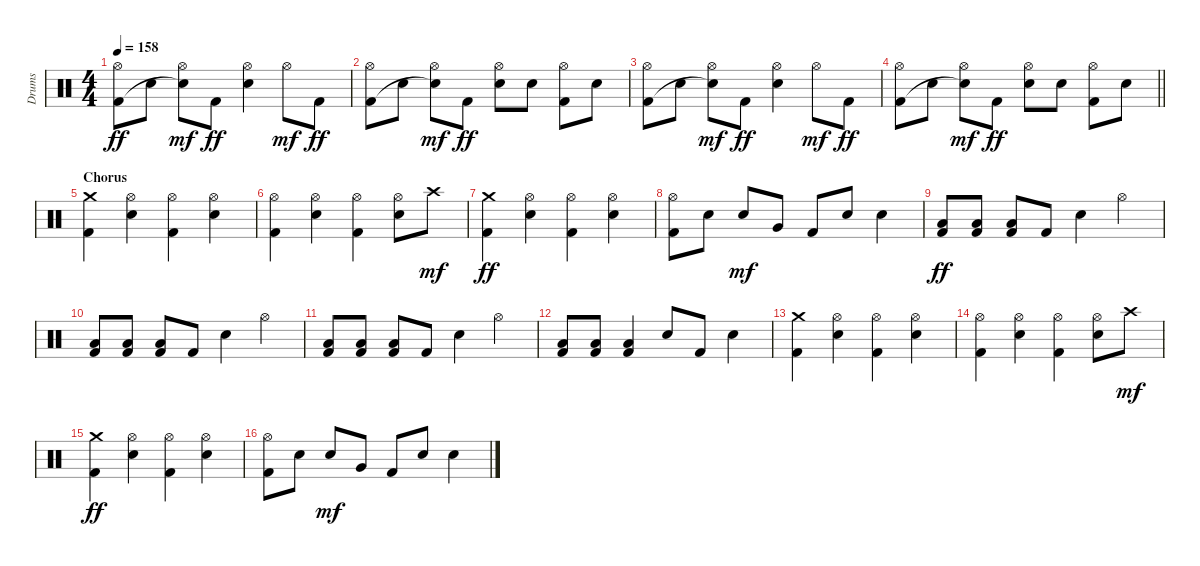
\track ("Drums" "Drums") {instrument percussion}
\staff {score}
\articulation defaults
\ts (4 4)
\tempo 158
\clef neutral
\ks c
("Hi-Hat (open)" "Kick (hit) 2").8{dy ff} "Electric Snare (hit)".8 ("Hi-Hat (open)" "Snare (hit)"{t}).8{dy mf} "Kick (hit) 2".8{dy ff} ("Hi-Hat (open)" "Electric Snare (hit)").4 "Hi-Hat (open)".8{dy mf} "Kick (hit) 2".8{dy ff} |
("Hi-Hat (open)" "Kick (hit) 2").8 "Electric Snare (hit)".8 ("Hi-Hat (open)" "Snare (hit)"{t}).8{dy mf} "Kick (hit) 2".8{dy ff} ("Hi-Hat (open)" "Electric Snare (hit)").8 "Electric Snare (hit)".8 ("Hi-Hat (open)" "Kick (hit) 2").8 "Electric Snare (hit)".8 |
("Hi-Hat (open)" "Kick (hit) 2").8 "Electric Snare (hit)".8 ("Hi-Hat (open)" "Snare (hit)"{t}).8{dy mf} "Kick (hit) 2".8{dy ff} ("Hi-Hat (open)" "Electric Snare (hit)").4 "Hi-Hat (open)".8{dy mf} "Kick (hit) 2".8{dy ff} |
\barLineRight lightlight
("Hi-Hat (open)" "Kick (hit) 2").8 "Electric Snare (hit)".8 ("Hi-Hat (open)" "Snare (hit)"{t}).8{dy mf} "Kick (hit) 2".8{dy ff} ("Hi-Hat (open)" "Electric Snare (hit)").8 "Electric Snare (hit)".8 ("Hi-Hat (open)" "Kick (hit) 2").8 "Electric Snare (hit)".8 |
\section ("" "Chorus")
("Crash medium (hit)" "Kick (hit) 2").4 ("Hi-Hat (open)" "Electric Snare (hit)").4 ("Hi-Hat (open)" "Kick (hit) 2").4 ("Hi-Hat (open)" "Electric Snare (hit)").4 |
("Hi-Hat (open)" "Kick (hit) 2").4 ("Hi-Hat (open)" "Electric Snare (hit)").4 ("Hi-Hat (open)" "Kick (hit) 2").4 ("Hi-Hat (open)" "Electric Snare (hit)").8 "Crash high (hit)".8{dy mf} |
("Crash medium (hit)" "Kick (hit) 2").4{dy ff} ("Hi-Hat (open)" "Electric Snare (hit)").4 ("Hi-Hat (open)" "Kick (hit) 2").4 ("Hi-Hat (open)" "Electric Snare (hit)").4 |
("Hi-Hat (open)" "Kick (hit) 2").8 "Electric Snare (hit)".8 "Electric Snare (hit)".8{dy mf} "Very Low Tom (hit)".8 "Kick (hit) 2".8 "Electric Snare (hit)".8 "Electric Snare (hit)".4 |
("Low Floor Tom (hit)" "Kick (hit) 2").8{dy ff} ("Low Floor Tom (hit)" "Kick (hit) 2").8 ("Low Floor Tom (hit)" "Kick (hit) 2").8 "Kick (hit) 2".8 "Electric Snare (hit)".4 "Hi-Hat (open)".4 |
("Low Floor Tom (hit)" "Kick (hit) 2").8 ("Low Floor Tom (hit)" "Kick (hit) 2").8 ("Low Floor Tom (hit)" "Kick (hit) 2").8 "Kick (hit) 2".8 "Electric Snare (hit)".4 "Hi-Hat (open)".4 |
("Low Floor Tom (hit)" "Kick (hit) 2").8 ("Low Floor Tom (hit)" "Kick (hit) 2").8 ("Low Floor Tom (hit)" "Kick (hit) 2").8 "Kick (hit) 2".8 "Electric Snare (hit)".4 "Hi-Hat (open)".4 |
("Low Floor Tom (hit)" "Kick (hit) 2").8 ("Low Floor Tom (hit)" "Kick (hit) 2").8 ("Low Floor Tom (hit)" "Kick (hit) 2").4 "Electric Snare (hit)".8 "Kick (hit) 2".8 "Electric Snare (hit)".4 |
("Crash medium (hit)" "Kick (hit) 2").4 ("Hi-Hat (open)" "Electric Snare (hit)").4 ("Hi-Hat (open)" "Kick (hit) 2").4 ("Hi-Hat (open)" "Electric Snare (hit)").4 |
("Hi-Hat (open)" "Kick (hit) 2").4 ("Hi-Hat (open)" "Electric Snare (hit)").4 ("Hi-Hat (open)" "Kick (hit) 2").4 ("Hi-Hat (open)" "Electric Snare (hit)").8 "Crash high (hit)".8{dy mf} |
("Crash medium (hit)" "Kick (hit) 2").4{dy ff} ("Hi-Hat (open)" "Electric Snare (hit)").4 ("Hi-Hat (open)" "Kick (hit) 2").4 ("Hi-Hat (open)" "Electric Snare (hit)").4 |
("Hi-Hat (open)" "Kick (hit) 2").8 "Electric Snare (hit)".8 "Electric Snare (hit)".8{dy mf} "Very Low Tom (hit)".8 "Kick (hit) 2".8 "Electric Snare (hit)".8 "Electric Snare (hit)".4
